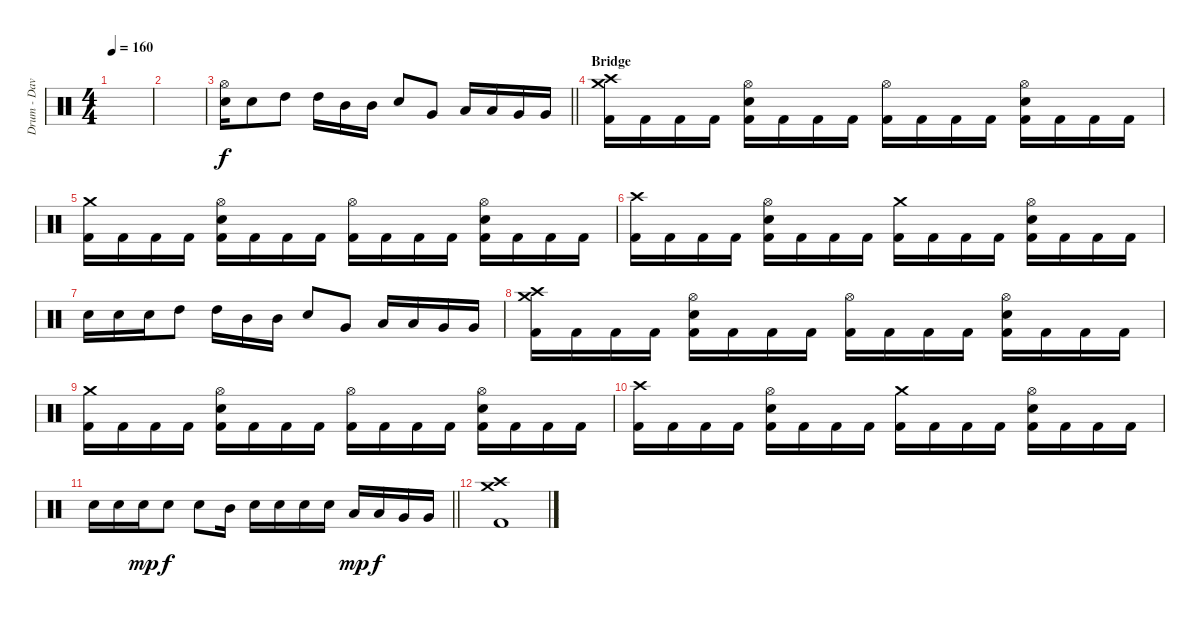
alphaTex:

\track ("Drum - Dave Mackintosh" "Drum - Dav") {instrument percussion}
\staff {score}
\articulation defaults
\ts (4 4)
\tempo 160
\clef neutral
\ks c
|
|
\barLineRight lightlight
("Hi-Hat (open)" "Electric Snare (hit)").16 "Electric Snare (hit)".8 "High Tom (hit)".8 "High Tom (hit)".16 "Mid Tom (hit)".16 "Mid Tom (hit)".16 "Electric Snare (hit)".8 "Very Low Tom (hit)".8 "Low Tom (hit)".16 "Low Tom (hit)".16 "Very Low Tom (hit)".16 "Very Low Tom (hit)".16 |
\section ("" "Bridge")
("Crash medium (hit)" "Crash high (hit)" "Kick (hit) 2").16 "Kick (hit) 2".16 "Kick (hit) 2".16 "Kick (hit) 2".16 ("Hi-Hat (open)" "Electric Snare (hit)" "Kick (hit) 2").16 "Kick (hit) 2".16 "Kick (hit) 2".16 "Kick (hit) 2".16 ("Hi-Hat (open)" "Kick (hit) 2").16 "Kick (hit) 2".16 "Kick (hit) 2".16 "Kick (hit) 2".16 ("Hi-Hat (open)" "Electric Snare (hit)" "Kick (hit) 2").16 "Kick (hit) 2".16 "Kick (hit) 2".16 "Kick (hit) 2".16 |
("Crash medium (hit)" "Kick (hit) 2").16 "Kick (hit) 2".16 "Kick (hit) 2".16 "Kick (hit) 2".16 ("Hi-Hat (open)" "Electric Snare (hit)" "Kick (hit) 2").16 "Kick (hit) 2".16 "Kick (hit) 2".16 "Kick (hit) 2".16 ("Hi-Hat (open)" "Kick (hit) 2").16 "Kick (hit) 2".16 "Kick (hit) 2".16 "Kick (hit) 2".16 ("Hi-Hat (open)" "Electric Snare (hit)" "Kick (hit) 2").16 "Kick (hit) 2".16 "Kick (hit) 2".16 "Kick (hit) 2".16 |
("Crash high (hit)" "Kick (hit) 2").16 "Kick (hit) 2".16 "Kick (hit) 2".16 "Kick (hit) 2".16 ("Hi-Hat (open)" "Electric Snare (hit)" "Kick (hit) 2").16 "Kick (hit) 2".16 "Kick (hit) 2".16 "Kick (hit) 2".16 ("Crash medium (hit)" "Kick (hit) 2").16 "Kick (hit) 2".16 "Kick (hit) 2".16 "Kick (hit) 2".16 ("Hi-Hat (open)" "Electric Snare (hit)" "Kick (hit) 2").16 "Kick (hit) 2".16 "Kick (hit) 2".16 "Kick (hit) 2".16 |
"Electric Snare (hit)".16 "Electric Snare (hit)".16 "Electric Snare (hit)".16 "High Tom (hit)".8 "High Tom (hit)".16 "Mid Tom (hit)".16 "Mid Tom (hit)".16 "Electric Snare (hit)".8 "Very Low Tom (hit)".8 "Low Tom (hit)".16 "Low Tom (hit)".16 "Very Low Tom (hit)".16 "Very Low Tom (hit)".16 |
("Crash medium (hit)" "Crash high (hit)" "Kick (hit) 2").16 "Kick (hit) 2".16 "Kick (hit) 2".16 "Kick (hit) 2".16 ("Hi-Hat (open)" "Electric Snare (hit)" "Kick (hit) 2").16 "Kick (hit) 2".16 "Kick (hit) 2".16 "Kick (hit) 2".16 ("Hi-Hat (open)" "Kick (hit) 2").16 "Kick (hit) 2".16 "Kick (hit) 2".16 "Kick (hit) 2".16 ("Hi-Hat (open)" "Electric Snare (hit)" "Kick (hit) 2").16 "Kick (hit) 2".16 "Kick (hit) 2".16 "Kick (hit) 2".16 |
("Crash medium (hit)" "Kick (hit) 2").16 "Kick (hit) 2".16 "Kick (hit) 2".16 "Kick (hit) 2".16 ("Hi-Hat (open)" "Electric Snare (hit)" "Kick (hit) 2").16 "Kick (hit) 2".16 "Kick (hit) 2".16 "Kick (hit) 2".16 ("Hi-Hat (open)" "Kick (hit) 2").16 "Kick (hit) 2".16 "Kick (hit) 2".16 "Kick (hit) 2".16 ("Hi-Hat (open)" "Electric Snare (hit)" "Kick (hit) 2").16 "Kick (hit) 2".16 "Kick (hit) 2".16 "Kick (hit) 2".16 |
("Crash high (hit)" "Kick (hit) 2").16 "Kick (hit) 2".16 "Kick (hit) 2".16 "Kick (hit) 2".16 ("Hi-Hat (open)" "Electric Snare (hit)" "Kick (hit) 2").16 "Kick (hit) 2".16 "Kick (hit) 2".16 "Kick (hit) 2".16 ("Crash medium (hit)" "Kick (hit) 2").16 "Kick (hit) 2".16 "Kick (hit) 2".16 "Kick (hit) 2".16 ("Hi-Hat (open)" "Electric Snare (hit)" "Kick (hit) 2").16 "Kick (hit) 2".16 "Kick (hit) 2".16 "Kick (hit) 2".16 |
\barLineRight lightlight "Electric Snare (hit)".16 "Electric Snare (hit)".16 "Electric Snare (hit)".16{dy mp} "Electric Snare (hit)".8{dy f} "Electric Snare (hit)".8 "Mid Tom (hit)".16 "Electric Snare (hit)".16 "Electric Snare (hit)".16 "Electric Snare (hit)".16 "Electric Snare (hit)".16 "Low Tom (hit)".16{dy mp} "Low Tom (hit)".16{dy f} "Very Low Tom (hit)".16 "Very Low Tom (hit)".16
|
\section ("" "")
("Crash medium (hit)" "Crash high (hit)" "Kick (hit) 2").1
